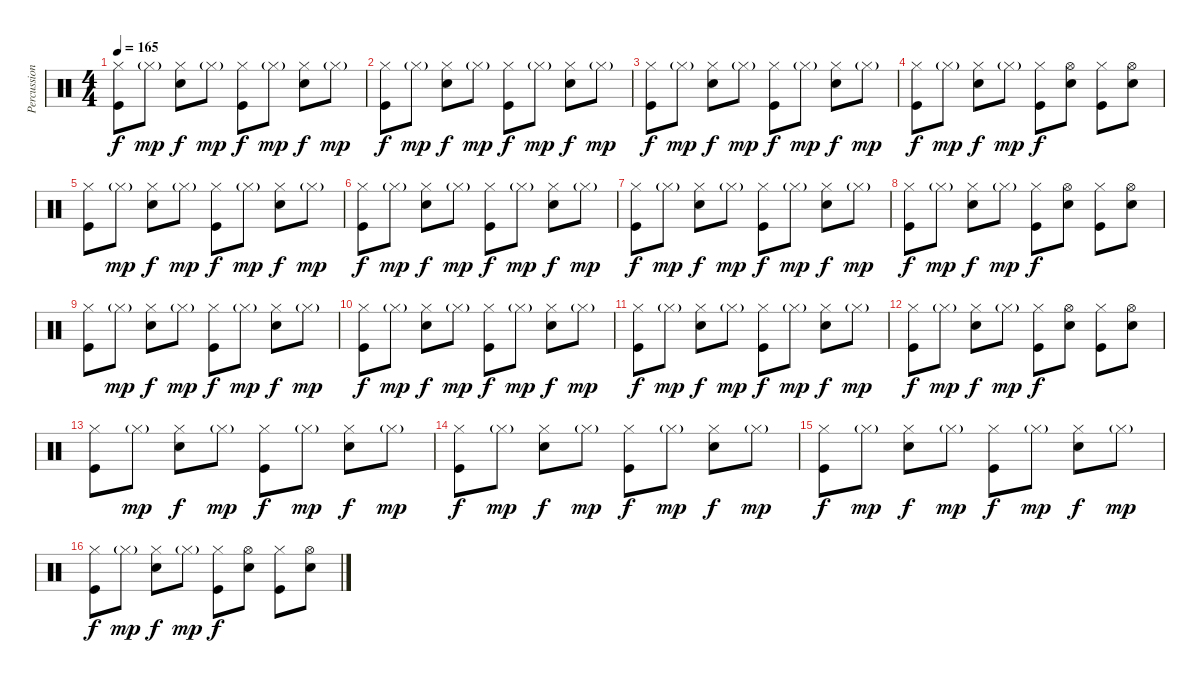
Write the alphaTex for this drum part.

\track ("Percussion" "Percussion") {instrument percussion}
\staff {score}
\articulation defaults
\ts (4 4)
\tempo 165
\clef neutral
\ks c
("Hi-Hat (closed)" "Kick (hit)").8{dy f} "Hi-Hat (closed)"{g}.8{dy mp} ("Hi-Hat (closed)" "Snare (hit) 2").8{dy f} "Hi-Hat (closed)"{g}.8{dy mp} ("Hi-Hat (closed)" "Kick (hit)").8{dy f} "Hi-Hat (closed)"{g}.8{dy mp} ("Hi-Hat (closed)" "Snare (hit) 2").8{dy f} "Hi-Hat (closed)"{g}.8{dy mp} |
("Hi-Hat (closed)" "Kick (hit)").8{dy f} "Hi-Hat (closed)"{g}.8{dy mp} ("Hi-Hat (closed)" "Snare (hit) 2").8{dy f} "Hi-Hat (closed)"{g}.8{dy mp} ("Hi-Hat (closed)" "Kick (hit)").8{dy f} "Hi-Hat (closed)"{g}.8{dy mp} ("Hi-Hat (closed)" "Snare (hit) 2").8{dy f} "Hi-Hat (closed)"{g}.8{dy mp} |
("Hi-Hat (closed)" "Kick (hit)").8{dy f} "Hi-Hat (closed)"{g}.8{dy mp} ("Hi-Hat (closed)" "Snare (hit) 2").8{dy f} "Hi-Hat (closed)"{g}.8{dy mp} ("Hi-Hat (closed)" "Kick (hit)").8{dy f} "Hi-Hat (closed)"{g}.8{dy mp} ("Hi-Hat (closed)" "Snare (hit) 2").8{dy f} "Hi-Hat (closed)"{g}.8{dy mp} |
("Hi-Hat (closed)" "Kick (hit)").8{dy f} "Hi-Hat (closed)"{g}.8{dy mp} ("Hi-Hat (closed)" "Snare (hit) 2").8{dy f} "Hi-Hat (closed)"{g}.8{dy mp} ("Hi-Hat (closed)" "Kick (hit)").8{dy f} ("Hi-Hat (open)" "Snare (hit) 2").8 ("Hi-Hat (closed)" "Kick (hit)").8 ("Hi-Hat (open)" "Snare (hit) 2").8 |
("Hi-Hat (closed)" "Kick (hit)").8 "Hi-Hat (closed)"{g}.8{dy mp} ("Hi-Hat (closed)" "Snare (hit) 2").8{dy f} "Hi-Hat (closed)"{g}.8{dy mp} ("Hi-Hat (closed)" "Kick (hit)").8{dy f} "Hi-Hat (closed)"{g}.8{dy mp} ("Hi-Hat (closed)" "Snare (hit) 2").8{dy f} "Hi-Hat (closed)"{g}.8{dy mp} |
("Hi-Hat (closed)" "Kick (hit)").8{dy f} "Hi-Hat (closed)"{g}.8{dy mp} ("Hi-Hat (closed)" "Snare (hit) 2").8{dy f} "Hi-Hat (closed)"{g}.8{dy mp} ("Hi-Hat (closed)" "Kick (hit)").8{dy f} "Hi-Hat (closed)"{g}.8{dy mp} ("Hi-Hat (closed)" "Snare (hit) 2").8{dy f} "Hi-Hat (closed)"{g}.8{dy mp} |
("Hi-Hat (closed)" "Kick (hit)").8{dy f} "Hi-Hat (closed)"{g}.8{dy mp} ("Hi-Hat (closed)" "Snare (hit) 2").8{dy f} "Hi-Hat (closed)"{g}.8{dy mp} ("Hi-Hat (closed)" "Kick (hit)").8{dy f} "Hi-Hat (closed)"{g}.8{dy mp} ("Hi-Hat (closed)" "Snare (hit) 2").8{dy f} "Hi-Hat (closed)"{g}.8{dy mp} |
("Hi-Hat (closed)" "Kick (hit)").8{dy f} "Hi-Hat (closed)"{g}.8{dy mp} ("Hi-Hat (closed)" "Snare (hit) 2").8{dy f} "Hi-Hat (closed)"{g}.8{dy mp} ("Hi-Hat (closed)" "Kick (hit)").8{dy f} ("Hi-Hat (open)" "Snare (hit) 2").8 ("Hi-Hat (closed)" "Kick (hit)").8 ("Hi-Hat (open)" "Snare (hit) 2").8 |
("Hi-Hat (closed)" "Kick (hit)").8 "Hi-Hat (closed)"{g}.8{dy mp} ("Hi-Hat (closed)" "Snare (hit) 2").8{dy f} "Hi-Hat (closed)"{g}.8{dy mp} ("Hi-Hat (closed)" "Kick (hit)").8{dy f} "Hi-Hat (closed)"{g}.8{dy mp} ("Hi-Hat (closed)" "Snare (hit) 2").8{dy f} "Hi-Hat (closed)"{g}.8{dy mp} |
("Hi-Hat (closed)" "Kick (hit)").8{dy f} "Hi-Hat (closed)"{g}.8{dy mp} ("Hi-Hat (closed)" "Snare (hit) 2").8{dy f} "Hi-Hat (closed)"{g}.8{dy mp} ("Hi-Hat (closed)" "Kick (hit)").8{dy f} "Hi-Hat (closed)"{g}.8{dy mp} ("Hi-Hat (closed)" "Snare (hit) 2").8{dy f} "Hi-Hat (closed)"{g}.8{dy mp} |
("Hi-Hat (closed)" "Kick (hit)").8{dy f} "Hi-Hat (closed)"{g}.8{dy mp} ("Hi-Hat (closed)" "Snare (hit) 2").8{dy f} "Hi-Hat (closed)"{g}.8{dy mp} ("Hi-Hat (closed)" "Kick (hit)").8{dy f} "Hi-Hat (closed)"{g}.8{dy mp} ("Hi-Hat (closed)" "Snare (hit) 2").8{dy f} "Hi-Hat (closed)"{g}.8{dy mp} |
("Hi-Hat (closed)" "Kick (hit)").8{dy f} "Hi-Hat (closed)"{g}.8{dy mp} ("Hi-Hat (closed)" "Snare (hit) 2").8{dy f} "Hi-Hat (closed)"{g}.8{dy mp} ("Hi-Hat (closed)" "Kick (hit)").8{dy f} ("Hi-Hat (open)" "Snare (hit) 2").8 ("Hi-Hat (closed)" "Kick (hit)").8 ("Hi-Hat (open)" "Snare (hit) 2").8 |
("Hi-Hat (closed)" "Kick (hit)").8 "Hi-Hat (closed)"{g}.8{dy mp} ("Hi-Hat (closed)" "Snare (hit) 2").8{dy f} "Hi-Hat (closed)"{g}.8{dy mp} ("Hi-Hat (closed)" "Kick (hit)").8{dy f} "Hi-Hat (closed)"{g}.8{dy mp} ("Hi-Hat (closed)" "Snare (hit) 2").8{dy f} "Hi-Hat (closed)"{g}.8{dy mp} |
("Hi-Hat (closed)" "Kick (hit)").8{dy f} "Hi-Hat (closed)"{g}.8{dy mp} ("Hi-Hat (closed)" "Snare (hit) 2").8{dy f} "Hi-Hat (closed)"{g}.8{dy mp} ("Hi-Hat (closed)" "Kick (hit)").8{dy f} "Hi-Hat (closed)"{g}.8{dy mp} ("Hi-Hat (closed)" "Snare (hit) 2").8{dy f} "Hi-Hat (closed)"{g}.8{dy mp} |
("Hi-Hat (closed)" "Kick (hit)").8{dy f} "Hi-Hat (closed)"{g}.8{dy mp} ("Hi-Hat (closed)" "Snare (hit) 2").8{dy f} "Hi-Hat (closed)"{g}.8{dy mp} ("Hi-Hat (closed)" "Kick (hit)").8{dy f} "Hi-Hat (closed)"{g}.8{dy mp} ("Hi-Hat (closed)" "Snare (hit) 2").8{dy f} "Hi-Hat (closed)"{g}.8{dy mp} |
("Hi-Hat (closed)" "Kick (hit)").8{dy f} "Hi-Hat (closed)"{g}.8{dy mp} ("Hi-Hat (closed)" "Snare (hit) 2").8{dy f} "Hi-Hat (closed)"{g}.8{dy mp} ("Hi-Hat (closed)" "Kick (hit)").8{dy f} ("Hi-Hat (open)" "Snare (hit) 2").8 ("Hi-Hat (closed)" "Kick (hit)").8 ("Hi-Hat (open)" "Snare (hit) 2").8
